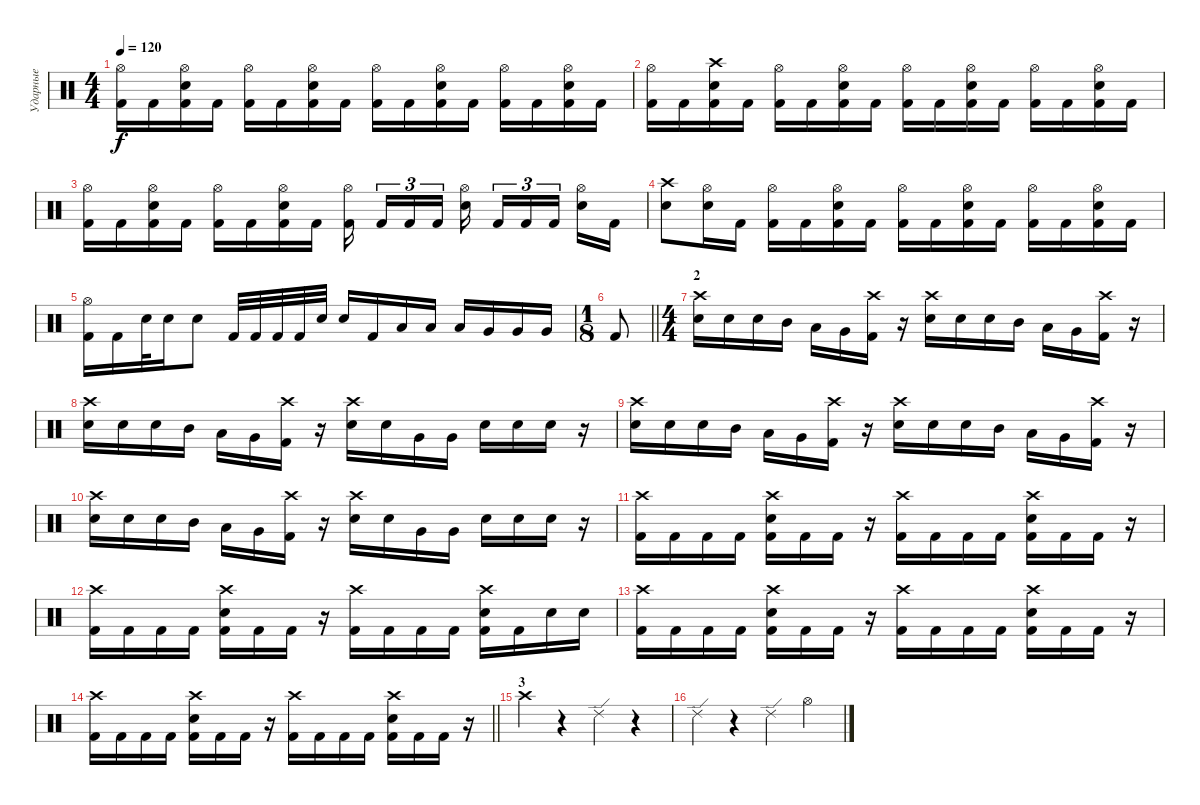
\track ("Ударные" "Ударные") {instrument percussion}
\staff {score}
\articulation defaults
\ts (4 4)
\tempo 120
\clef neutral
\ks c
("Hi-Hat (open)" "Kick (hit) 2").16{dy f} "Kick (hit) 2".16 ("Hi-Hat (open)" "Electric Snare (hit)" "Kick (hit) 2").16 "Kick (hit) 2".16 ("Hi-Hat (open)" "Kick (hit) 2").16 "Kick (hit) 2".16 ("Hi-Hat (open)" "Electric Snare (hit)" "Kick (hit) 2").16 "Kick (hit) 2".16 ("Hi-Hat (open)" "Kick (hit) 2").16 "Kick (hit) 2".16 ("Hi-Hat (open)" "Electric Snare (hit)" "Kick (hit) 2").16 "Kick (hit) 2".16 ("Hi-Hat (open)" "Kick (hit) 2").16 "Kick (hit) 2".16 ("Hi-Hat (open)" "Electric Snare (hit)" "Kick (hit) 2").16 "Kick (hit) 2".16 |
("Hi-Hat (open)" "Kick (hit) 2").16 "Kick (hit) 2".16 ("Crash high (hit)" "Electric Snare (hit)" "Kick (hit) 2").16 "Kick (hit) 2".16 ("Hi-Hat (open)" "Kick (hit) 2").16 "Kick (hit) 2".16 ("Hi-Hat (open)" "Electric Snare (hit)" "Kick (hit) 2").16 "Kick (hit) 2".16 ("Hi-Hat (open)" "Kick (hit) 2").16 "Kick (hit) 2".16 ("Hi-Hat (open)" "Electric Snare (hit)" "Kick (hit) 2").16 "Kick (hit) 2".16 ("Hi-Hat (open)" "Kick (hit) 2").16 "Kick (hit) 2".16 ("Hi-Hat (open)" "Electric Snare (hit)" "Kick (hit) 2").16 "Kick (hit) 2".16 |
("Hi-Hat (open)" "Kick (hit) 2").16 "Kick (hit) 2".16 ("Hi-Hat (open)" "Electric Snare (hit)" "Kick (hit) 2").16 "Kick (hit) 2".16 ("Hi-Hat (open)" "Kick (hit) 2").16 "Kick (hit) 2".16 ("Hi-Hat (open)" "Electric Snare (hit)" "Kick (hit) 2").16 "Kick (hit) 2".16 ("Hi-Hat (open)" "Kick (hit) 2").16 "Kick (hit) 2".16{tu (3 2)} "Kick (hit) 2".16{tu (3 2)} "Kick (hit) 2".16{tu (3 2)} ("Hi-Hat (open)" "Electric Snare (hit)").16 "Kick (hit) 2".16{tu (3 2)} "Kick (hit) 2".16{tu (3 2)} "Kick (hit) 2".16{tu (3 2)} ("Hi-Hat (open)" "Electric Snare (hit)").16 "Kick (hit) 2".16 |
("Crash high (hit)" "Electric Snare (hit)").8 ("Hi-Hat (open)" "Electric Snare (hit)").16 "Kick (hit) 2".16 ("Hi-Hat (open)" "Kick (hit) 2").16 "Kick (hit) 2".16 ("Hi-Hat (open)" "Electric Snare (hit)" "Kick (hit) 2").16 "Kick (hit) 2".16 ("Hi-Hat (open)" "Kick (hit) 2").16 "Kick (hit) 2".16 ("Hi-Hat (open)" "Electric Snare (hit)" "Kick (hit) 2").16 "Kick (hit) 2".16 ("Hi-Hat (open)" "Kick (hit) 2").16 "Kick (hit) 2".16 ("Hi-Hat (open)" "Electric Snare (hit)" "Kick (hit) 2").16 "Kick (hit) 2".16 |
("Hi-Hat (open)" "Kick (hit) 2").16 "Kick (hit) 2".16 "Electric Snare (hit)".32 "Electric Snare (hit)".16 "Electric Snare (hit)".8 "Kick (hit) 2".32 "Kick (hit) 2".32 "Kick (hit) 2".32 "Kick (hit) 2".32 "Electric Snare (hit)".32 "Electric Snare (hit)".16 "Kick (hit) 2".16 "Low Tom (hit)".16 "Low Tom (hit)".16 "Low Tom (hit)".16 "Very Low Tom (hit)".16 "Very Low Tom (hit)".16 "Very Low Tom (hit)".16 |
\ts (1 8)
\barLineRight lightlight "Kick (hit) 2".8
|
\ts (4 4)
\section ("" "2")
("Crash high (hit)" "Electric Snare (hit)").16 "Electric Snare (hit)".16 "Electric Snare (hit)".16 "Mid Tom (hit)".16 "Low Tom (hit)".16 "Very Low Tom (hit)".16 ("Crash high (hit)" "Kick (hit) 2").16 r.16 ("Crash high (hit)" "Electric Snare (hit)").16 "Electric Snare (hit)".16 "Electric Snare (hit)".16 "Mid Tom (hit)".16 "Low Tom (hit)".16 "Very Low Tom (hit)".16 ("Crash high (hit)" "Kick (hit) 2").16 r.16 |
("Crash high (hit)" "Electric Snare (hit)").16 "Electric Snare (hit)".16 "Electric Snare (hit)".16 "Mid Tom (hit)".16 "Low Tom (hit)".16 "Very Low Tom (hit)".16 ("Crash high (hit)" "Kick (hit) 2").16 r.16 ("Crash high (hit)" "Electric Snare (hit)").16 "Electric Snare (hit)".16 "Very Low Tom (hit)".16 "Very Low Tom (hit)".16 "Electric Snare (hit)".16 "Electric Snare (hit)".16 "Electric Snare (hit)".16 r.16 |
("Crash high (hit)" "Electric Snare (hit)").16 "Electric Snare (hit)".16 "Electric Snare (hit)".16 "Mid Tom (hit)".16 "Low Tom (hit)".16 "Very Low Tom (hit)".16 ("Crash high (hit)" "Kick (hit) 2").16 r.16 ("Crash high (hit)" "Electric Snare (hit)").16 "Electric Snare (hit)".16 "Electric Snare (hit)".16 "Mid Tom (hit)".16 "Low Tom (hit)".16 "Very Low Tom (hit)".16 ("Crash high (hit)" "Kick (hit) 2").16 r.16 |
("Crash high (hit)" "Electric Snare (hit)").16 "Electric Snare (hit)".16 "Electric Snare (hit)".16 "Mid Tom (hit)".16 "Low Tom (hit)".16 "Very Low Tom (hit)".16 ("Crash high (hit)" "Kick (hit) 2").16 r.16 ("Crash high (hit)" "Electric Snare (hit)").16 "Electric Snare (hit)".16 "Very Low Tom (hit)".16 "Very Low Tom (hit)".16 "Electric Snare (hit)".16 "Electric Snare (hit)".16 "Electric Snare (hit)".16 r.16 |
("Crash high (hit)" "Kick (hit) 2").16 "Kick (hit) 2".16 "Kick (hit) 2".16 "Kick (hit) 2".16 ("Crash high (hit)" "Electric Snare (hit)" "Kick (hit) 2").16 "Kick (hit) 2".16 "Kick (hit) 2".16 r.16 ("Crash high (hit)" "Kick (hit) 2").16 "Kick (hit) 2".16 "Kick (hit) 2".16 "Kick (hit) 2".16 ("Crash high (hit)" "Electric Snare (hit)" "Kick (hit) 2").16 "Kick (hit) 2".16 "Kick (hit) 2".16 r.16 |
("Crash high (hit)" "Kick (hit) 2").16 "Kick (hit) 2".16 "Kick (hit) 2".16 "Kick (hit) 2".16 ("Crash high (hit)" "Electric Snare (hit)" "Kick (hit) 2").16 "Kick (hit) 2".16 "Kick (hit) 2".16 r.16 ("Crash high (hit)" "Kick (hit) 2").16 "Kick (hit) 2".16 "Kick (hit) 2".16 "Kick (hit) 2".16 ("Crash high (hit)" "Electric Snare (hit)" "Kick (hit) 2").16 "Kick (hit) 2".16 "Electric Snare (hit)".16 "Electric Snare (hit)".16 |
("Crash high (hit)" "Kick (hit) 2").16 "Kick (hit) 2".16 "Kick (hit) 2".16 "Kick (hit) 2".16 ("Crash high (hit)" "Electric Snare (hit)" "Kick (hit) 2").16 "Kick (hit) 2".16 "Kick (hit) 2".16 r.16 ("Crash high (hit)" "Kick (hit) 2").16 "Kick (hit) 2".16 "Kick (hit) 2".16 "Kick (hit) 2".16 ("Crash high (hit)" "Electric Snare (hit)" "Kick (hit) 2").16 "Kick (hit) 2".16 "Kick (hit) 2".16 r.16 |
\barLineRight lightlight
("Crash high (hit)" "Kick (hit) 2").16 "Kick (hit) 2".16 "Kick (hit) 2".16 "Kick (hit) 2".16 ("Crash high (hit)" "Electric Snare (hit)" "Kick (hit) 2").16 "Kick (hit) 2".16 "Kick (hit) 2".16 r.16 ("Crash high (hit)" "Kick (hit) 2").16 "Kick (hit) 2".16 "Kick (hit) 2".16 "Kick (hit) 2".16 ("Crash high (hit)" "Electric Snare (hit)" "Kick (hit) 2").16 "Kick (hit) 2".16 "Kick (hit) 2".16 r.16 |
\section ("" "3")
"Crash high (hit)".4 r.4 "Ride (edge) 2".4 r.4 |
"Ride (edge) 2".4 r.4 "Ride (edge) 2".4 "Hi-Hat (open)".4
